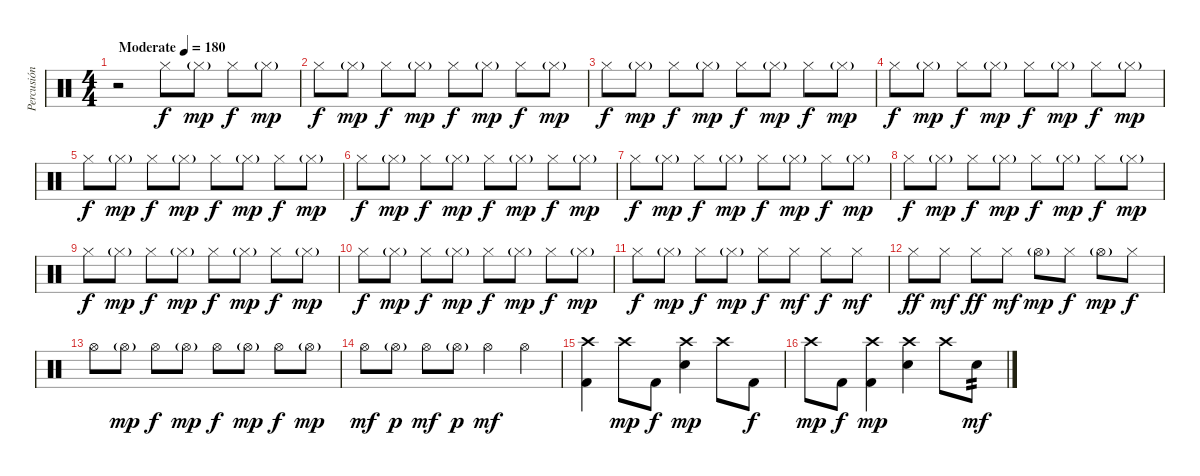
\track ("Percusión" "Percusión") {instrument percussion}
\staff {score}
\articulation defaults
\ts (4 4)
\tempo (180 "Moderate")
\clef neutral
\ks c
r.2{dy f} "Hi-Hat (closed)".8 "Hi-Hat (closed)"{g}.8{dy mp} "Hi-Hat (closed)".8{dy f} "Hi-Hat (closed)"{g}.8{dy mp} |
"Hi-Hat (closed)".8{dy f} "Hi-Hat (closed)"{g}.8{dy mp} "Hi-Hat (closed)".8{dy f} "Hi-Hat (closed)"{g}.8{dy mp} "Hi-Hat (closed)".8{dy f} "Hi-Hat (closed)"{g}.8{dy mp} "Hi-Hat (closed)".8{dy f} "Hi-Hat (closed)"{g}.8{dy mp} |
"Hi-Hat (closed)".8{dy f} "Hi-Hat (closed)"{g}.8{dy mp} "Hi-Hat (closed)".8{dy f} "Hi-Hat (closed)"{g}.8{dy mp} "Hi-Hat (closed)".8{dy f} "Hi-Hat (closed)"{g}.8{dy mp} "Hi-Hat (closed)".8{dy f} "Hi-Hat (closed)"{g}.8{dy mp} |
"Hi-Hat (closed)".8{dy f} "Hi-Hat (closed)"{g}.8{dy mp} "Hi-Hat (closed)".8{dy f} "Hi-Hat (closed)"{g}.8{dy mp} "Hi-Hat (closed)".8{dy f} "Hi-Hat (closed)"{g}.8{dy mp} "Hi-Hat (closed)".8{dy f} "Hi-Hat (closed)"{g}.8{dy mp} |
"Hi-Hat (closed)".8{dy f} "Hi-Hat (closed)"{g}.8{dy mp} "Hi-Hat (closed)".8{dy f} "Hi-Hat (closed)"{g}.8{dy mp} "Hi-Hat (closed)".8{dy f} "Hi-Hat (closed)"{g}.8{dy mp} "Hi-Hat (closed)".8{dy f} "Hi-Hat (closed)"{g}.8{dy mp} |
"Hi-Hat (closed)".8{dy f} "Hi-Hat (closed)"{g}.8{dy mp} "Hi-Hat (closed)".8{dy f} "Hi-Hat (closed)"{g}.8{dy mp} "Hi-Hat (closed)".8{dy f} "Hi-Hat (closed)"{g}.8{dy mp} "Hi-Hat (closed)".8{dy f} "Hi-Hat (closed)"{g}.8{dy mp} |
"Hi-Hat (closed)".8{dy f} "Hi-Hat (closed)"{g}.8{dy mp} "Hi-Hat (closed)".8{dy f} "Hi-Hat (closed)"{g}.8{dy mp} "Hi-Hat (closed)".8{dy f} "Hi-Hat (closed)"{g}.8{dy mp} "Hi-Hat (closed)".8{dy f} "Hi-Hat (closed)"{g}.8{dy mp} |
"Hi-Hat (closed)".8{dy f} "Hi-Hat (closed)"{g}.8{dy mp} "Hi-Hat (closed)".8{dy f} "Hi-Hat (closed)"{g}.8{dy mp} "Hi-Hat (closed)".8{dy f} "Hi-Hat (closed)"{g}.8{dy mp} "Hi-Hat (closed)".8{dy f} "Hi-Hat (closed)"{g}.8{dy mp} |
"Hi-Hat (closed)".8{dy f} "Hi-Hat (closed)"{g}.8{dy mp} "Hi-Hat (closed)".8{dy f} "Hi-Hat (closed)"{g}.8{dy mp} "Hi-Hat (closed)".8{dy f} "Hi-Hat (closed)"{g}.8{dy mp} "Hi-Hat (closed)".8{dy f} "Hi-Hat (closed)"{g}.8{dy mp} |
"Hi-Hat (closed)".8{dy f} "Hi-Hat (closed)"{g}.8{dy mp} "Hi-Hat (closed)".8{dy f} "Hi-Hat (closed)"{g}.8{dy mp} "Hi-Hat (closed)".8{dy f} "Hi-Hat (closed)"{g}.8{dy mp} "Hi-Hat (closed)".8{dy f} "Hi-Hat (closed)"{g}.8{dy mp} |
"Hi-Hat (closed)".8{dy f} "Hi-Hat (closed)"{g}.8{dy mp} "Hi-Hat (closed)".8{dy f} "Hi-Hat (closed)"{g}.8{dy mp} "Hi-Hat (closed)".8{dy f} "Hi-Hat (closed)".8{dy mf} "Hi-Hat (closed)".8{dy f} "Hi-Hat (closed)".8{dy mf} |
"Hi-Hat (closed)".8{dy ff} "Hi-Hat (closed)".8{dy mf} "Hi-Hat (closed)".8{dy ff} "Hi-Hat (closed)".8{dy mf} "Hi-Hat (open)"{g}.8{dy mp} "Hi-Hat (closed)".8{dy f} "Hi-Hat (open)"{g}.8{dy mp} "Hi-Hat (closed)".8{dy f} |
"Hi-Hat (open)".8 "Hi-Hat (open)"{g}.8{dy mp} "Hi-Hat (open)".8{dy f} "Hi-Hat (open)"{g}.8{dy mp} "Hi-Hat (open)".8{dy f} "Hi-Hat (open)"{g}.8{dy mp} "Hi-Hat (open)".8{dy f} "Hi-Hat (open)"{g}.8{dy mp} |
"Hi-Hat (open)".8{dy mf} "Hi-Hat (open)"{g}.8{dy p} "Hi-Hat (open)".8{dy mf} "Hi-Hat (open)"{g}.8{dy p} "Hi-Hat (open)".4{dy mf} "Hi-Hat (open)".4 |
("Crash high (hit)" "Kick (hit) 2").4 "Crash high (hit)".8{dy mp} "Kick (hit) 2".8{dy f} ("Crash high (hit)" "Snare (hit) 2").4{dy mp} "Crash high (hit)".8 "Kick (hit) 2".8{dy f} |
"Crash high (hit)".8{dy mp} "Kick (hit) 2".8{dy f} ("Crash high (hit)" "Kick (hit) 2").4{dy mp} ("Crash high (hit)" "Snare (hit) 2").4 "Crash high (hit)".8 "Snare (hit) 2".8{tp 2 dy mf}
